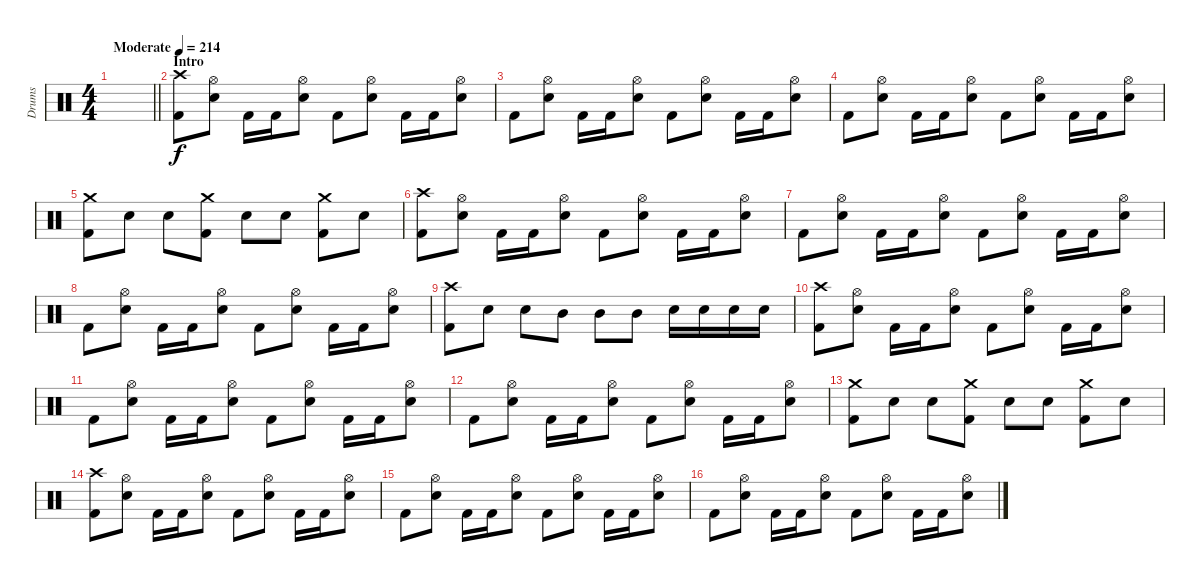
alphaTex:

\track ("Drums" "Drums") {instrument percussion}
\staff {score}
\articulation defaults
\ts (4 4)
\tempo (214 "Moderate")
\clef neutral
\barLineRight lightlight
\ks c
|
\section ("" "Intro")
("Crash high (hit)" "Kick (hit) 2").8 ("Hi-Hat (open)" "Snare (hit) 2").8 "Kick (hit) 2".16 "Kick (hit) 2".16 ("Hi-Hat (open)" "Snare (hit) 2").8 "Kick (hit) 2".8 ("Hi-Hat (open)" "Snare (hit) 2").8 "Kick (hit) 2".16 "Kick (hit) 2".16 ("Hi-Hat (open)" "Snare (hit) 2").8 |
"Kick (hit) 2".8 ("Hi-Hat (open)" "Snare (hit) 2").8 "Kick (hit) 2".16 "Kick (hit) 2".16 ("Hi-Hat (open)" "Snare (hit) 2").8 "Kick (hit) 2".8 ("Hi-Hat (open)" "Snare (hit) 2").8 "Kick (hit) 2".16 "Kick (hit) 2".16 ("Hi-Hat (open)" "Snare (hit) 2").8 |
"Kick (hit) 2".8 ("Hi-Hat (open)" "Snare (hit) 2").8 "Kick (hit) 2".16 "Kick (hit) 2".16 ("Hi-Hat (open)" "Snare (hit) 2").8 "Kick (hit) 2".8 ("Hi-Hat (open)" "Snare (hit) 2").8 "Kick (hit) 2".16 "Kick (hit) 2".16 ("Hi-Hat (open)" "Snare (hit) 2").8 |
("Crash medium (hit)" "Kick (hit) 2").8 "Snare (hit) 2".8 "Snare (hit) 2".8 ("Crash medium (hit)" "Kick (hit) 2").8 "Snare (hit) 2".8 "Snare (hit) 2".8 ("Crash medium (hit)" "Kick (hit) 2").8 "Snare (hit) 2".8 |
("Crash high (hit)" "Kick (hit) 2").8 ("Hi-Hat (open)" "Snare (hit) 2").8 "Kick (hit) 2".16 "Kick (hit) 2".16 ("Hi-Hat (open)" "Snare (hit) 2").8 "Kick (hit) 2".8 ("Hi-Hat (open)" "Snare (hit) 2").8 "Kick (hit) 2".16 "Kick (hit) 2".16 ("Hi-Hat (open)" "Snare (hit) 2").8 |
"Kick (hit) 2".8 ("Hi-Hat (open)" "Snare (hit) 2").8 "Kick (hit) 2".16 "Kick (hit) 2".16 ("Hi-Hat (open)" "Snare (hit) 2").8 "Kick (hit) 2".8 ("Hi-Hat (open)" "Snare (hit) 2").8 "Kick (hit) 2".16 "Kick (hit) 2".16 ("Hi-Hat (open)" "Snare (hit) 2").8 |
"Kick (hit) 2".8 ("Hi-Hat (open)" "Snare (hit) 2").8 "Kick (hit) 2".16 "Kick (hit) 2".16 ("Hi-Hat (open)" "Snare (hit) 2").8 "Kick (hit) 2".8 ("Hi-Hat (open)" "Snare (hit) 2").8 "Kick (hit) 2".16 "Kick (hit) 2".16 ("Hi-Hat (open)" "Snare (hit) 2").8 |
("Crash high (hit)" "Kick (hit) 2").8 "Snare (hit) 2".8 "Snare (hit) 2".8 "Mid Tom (hit)".8 "Mid Tom (hit)".8 "Mid Tom (hit)".8 "Snare (hit) 2".16 "Snare (hit) 2".16 "Snare (hit) 2".16 "Snare (hit) 2".16 |
("Crash high (hit)" "Kick (hit) 2").8 ("Hi-Hat (open)" "Snare (hit) 2").8 "Kick (hit) 2".16 "Kick (hit) 2".16 ("Hi-Hat (open)" "Snare (hit) 2").8 "Kick (hit) 2".8 ("Hi-Hat (open)" "Snare (hit) 2").8 "Kick (hit) 2".16 "Kick (hit) 2".16 ("Hi-Hat (open)" "Snare (hit) 2").8 |
"Kick (hit) 2".8 ("Hi-Hat (open)" "Snare (hit) 2").8 "Kick (hit) 2".16 "Kick (hit) 2".16 ("Hi-Hat (open)" "Snare (hit) 2").8 "Kick (hit) 2".8 ("Hi-Hat (open)" "Snare (hit) 2").8 "Kick (hit) 2".16 "Kick (hit) 2".16 ("Hi-Hat (open)" "Snare (hit) 2").8 |
"Kick (hit) 2".8 ("Hi-Hat (open)" "Snare (hit) 2").8 "Kick (hit) 2".16 "Kick (hit) 2".16 ("Hi-Hat (open)" "Snare (hit) 2").8 "Kick (hit) 2".8 ("Hi-Hat (open)" "Snare (hit) 2").8 "Kick (hit) 2".16 "Kick (hit) 2".16 ("Hi-Hat (open)" "Snare (hit) 2").8 |
("Crash medium (hit)" "Kick (hit) 2").8 "Snare (hit) 2".8 "Snare (hit) 2".8 ("Crash medium (hit)" "Kick (hit) 2").8 "Snare (hit) 2".8 "Snare (hit) 2".8 ("Crash medium (hit)" "Kick (hit) 2").8 "Snare (hit) 2".8 |
("Crash high (hit)" "Kick (hit) 2").8 ("Hi-Hat (open)" "Snare (hit) 2").8 "Kick (hit) 2".16 "Kick (hit) 2".16 ("Hi-Hat (open)" "Snare (hit) 2").8 "Kick (hit) 2".8 ("Hi-Hat (open)" "Snare (hit) 2").8 "Kick (hit) 2".16 "Kick (hit) 2".16 ("Hi-Hat (open)" "Snare (hit) 2").8 |
"Kick (hit) 2".8 ("Hi-Hat (open)" "Snare (hit) 2").8 "Kick (hit) 2".16 "Kick (hit) 2".16 ("Hi-Hat (open)" "Snare (hit) 2").8 "Kick (hit) 2".8 ("Hi-Hat (open)" "Snare (hit) 2").8 "Kick (hit) 2".16 "Kick (hit) 2".16 ("Hi-Hat (open)" "Snare (hit) 2").8 |
"Kick (hit) 2".8 ("Hi-Hat (open)" "Snare (hit) 2").8 "Kick (hit) 2".16 "Kick (hit) 2".16 ("Hi-Hat (open)" "Snare (hit) 2").8 "Kick (hit) 2".8 ("Hi-Hat (open)" "Snare (hit) 2").8 "Kick (hit) 2".16 "Kick (hit) 2".16 ("Hi-Hat (open)" "Snare (hit) 2").8
